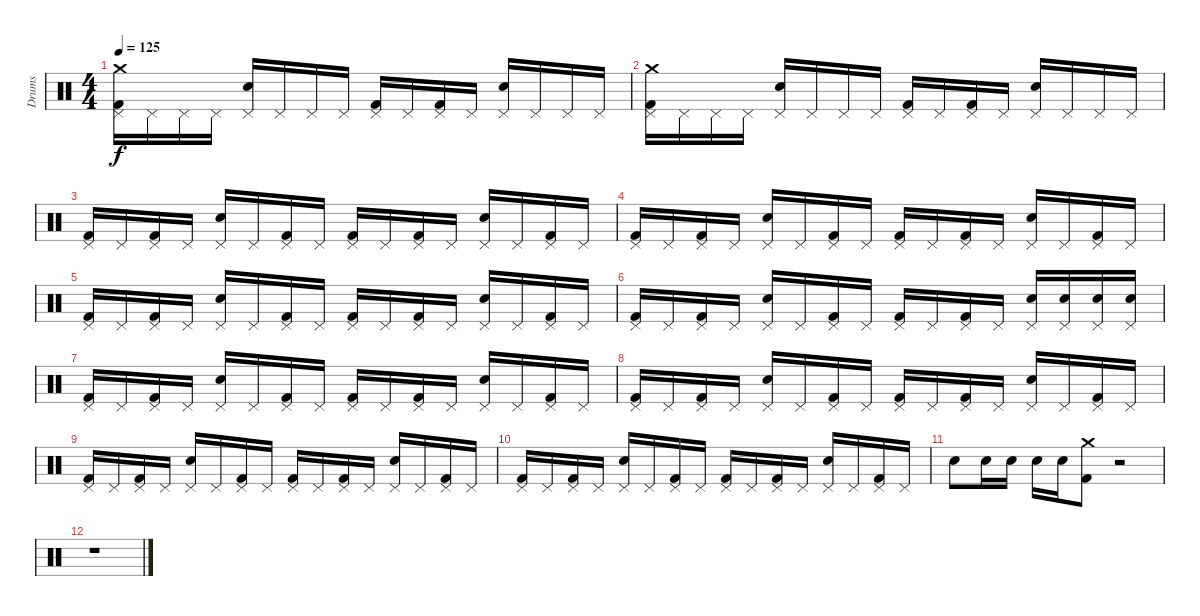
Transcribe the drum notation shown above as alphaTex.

\track ("Drums" "Drums") {instrument percussion}
\staff {score}
\articulation defaults
\ts (4 4)
\tempo 125
\clef neutral
\ks c
("Crash medium (hit)" "Kick (hit) 2" "Pedal Hi-Hat (hit)").16{dy f} "Pedal Hi-Hat (hit)".16 "Pedal Hi-Hat (hit)".16 "Pedal Hi-Hat (hit)".16 ("Snare (hit) 2" "Pedal Hi-Hat (hit)").16 "Pedal Hi-Hat (hit)".16 "Pedal Hi-Hat (hit)".16 "Pedal Hi-Hat (hit)".16 ("Kick (hit) 2" "Pedal Hi-Hat (hit)").16 "Pedal Hi-Hat (hit)".16 ("Kick (hit) 2" "Pedal Hi-Hat (hit)").16 "Pedal Hi-Hat (hit)".16 ("Snare (hit) 2" "Pedal Hi-Hat (hit)").16 "Pedal Hi-Hat (hit)".16 "Pedal Hi-Hat (hit)".16 "Pedal Hi-Hat (hit)".16 |
("Pedal Hi-Hat (hit)" "Crash medium (hit)" "Kick (hit) 2").16 "Pedal Hi-Hat (hit)".16 "Pedal Hi-Hat (hit)".16 "Pedal Hi-Hat (hit)".16 ("Pedal Hi-Hat (hit)" "Snare (hit) 2").16 "Pedal Hi-Hat (hit)".16 "Pedal Hi-Hat (hit)".16 "Pedal Hi-Hat (hit)".16 ("Pedal Hi-Hat (hit)" "Kick (hit) 2").16 "Pedal Hi-Hat (hit)".16 ("Pedal Hi-Hat (hit)" "Kick (hit) 2").16 "Pedal Hi-Hat (hit)".16 ("Pedal Hi-Hat (hit)" "Snare (hit) 2").16 "Pedal Hi-Hat (hit)".16 "Pedal Hi-Hat (hit)".16 "Pedal Hi-Hat (hit)".16 |
("Kick (hit) 2" "Pedal Hi-Hat (hit)").16 "Pedal Hi-Hat (hit)".16 ("Kick (hit) 2" "Pedal Hi-Hat (hit)").16 "Pedal Hi-Hat (hit)".16 ("Snare (hit) 2" "Pedal Hi-Hat (hit)").16 "Pedal Hi-Hat (hit)".16 ("Kick (hit) 2" "Pedal Hi-Hat (hit)").16 "Pedal Hi-Hat (hit)".16 ("Kick (hit) 2" "Pedal Hi-Hat (hit)").16 "Pedal Hi-Hat (hit)".16 ("Kick (hit) 2" "Pedal Hi-Hat (hit)").16 "Pedal Hi-Hat (hit)".16 ("Snare (hit) 2" "Pedal Hi-Hat (hit)").16 "Pedal Hi-Hat (hit)".16 ("Kick (hit) 2" "Pedal Hi-Hat (hit)").16 "Pedal Hi-Hat (hit)".16 |
("Pedal Hi-Hat (hit)" "Kick (hit) 2").16 "Pedal Hi-Hat (hit)".16 ("Pedal Hi-Hat (hit)" "Kick (hit) 2").16 "Pedal Hi-Hat (hit)".16 ("Pedal Hi-Hat (hit)" "Snare (hit) 2").16 "Pedal Hi-Hat (hit)".16 ("Pedal Hi-Hat (hit)" "Kick (hit) 2").16 "Pedal Hi-Hat (hit)".16 ("Pedal Hi-Hat (hit)" "Kick (hit) 2").16 "Pedal Hi-Hat (hit)".16 ("Pedal Hi-Hat (hit)" "Kick (hit) 2").16 "Pedal Hi-Hat (hit)".16 ("Pedal Hi-Hat (hit)" "Snare (hit) 2").16 "Pedal Hi-Hat (hit)".16 ("Pedal Hi-Hat (hit)" "Kick (hit) 2").16 "Pedal Hi-Hat (hit)".16 |
("Kick (hit) 2" "Pedal Hi-Hat (hit)").16 "Pedal Hi-Hat (hit)".16 ("Kick (hit) 2" "Pedal Hi-Hat (hit)").16 "Pedal Hi-Hat (hit)".16 ("Snare (hit) 2" "Pedal Hi-Hat (hit)").16 "Pedal Hi-Hat (hit)".16 ("Kick (hit) 2" "Pedal Hi-Hat (hit)").16 "Pedal Hi-Hat (hit)".16 ("Kick (hit) 2" "Pedal Hi-Hat (hit)").16 "Pedal Hi-Hat (hit)".16 ("Kick (hit) 2" "Pedal Hi-Hat (hit)").16 "Pedal Hi-Hat (hit)".16 ("Snare (hit) 2" "Pedal Hi-Hat (hit)").16 "Pedal Hi-Hat (hit)".16 ("Kick (hit) 2" "Pedal Hi-Hat (hit)").16 "Pedal Hi-Hat (hit)".16 |
("Pedal Hi-Hat (hit)" "Kick (hit) 2").16 "Pedal Hi-Hat (hit)".16 ("Pedal Hi-Hat (hit)" "Kick (hit) 2").16 "Pedal Hi-Hat (hit)".16 ("Pedal Hi-Hat (hit)" "Snare (hit) 2").16 "Pedal Hi-Hat (hit)".16 ("Pedal Hi-Hat (hit)" "Kick (hit) 2").16 "Pedal Hi-Hat (hit)".16 ("Kick (hit) 2" "Pedal Hi-Hat (hit)").16 "Pedal Hi-Hat (hit)".16 ("Kick (hit) 2" "Pedal Hi-Hat (hit)").16 "Pedal Hi-Hat (hit)".16 ("Pedal Hi-Hat (hit)" "Snare (hit) 2").16 ("Snare (hit) 2" "Pedal Hi-Hat (hit)").16 ("Snare (hit) 2" "Pedal Hi-Hat (hit)").16 ("Snare (hit) 2" "Pedal Hi-Hat (hit)").16 |
("Pedal Hi-Hat (hit)" "Kick (hit) 2").16 "Pedal Hi-Hat (hit)".16 ("Pedal Hi-Hat (hit)" "Kick (hit) 2").16 "Pedal Hi-Hat (hit)".16 ("Pedal Hi-Hat (hit)" "Snare (hit) 2").16 "Pedal Hi-Hat (hit)".16 ("Pedal Hi-Hat (hit)" "Kick (hit) 2").16 "Pedal Hi-Hat (hit)".16 ("Pedal Hi-Hat (hit)" "Kick (hit) 2").16 "Pedal Hi-Hat (hit)".16 ("Pedal Hi-Hat (hit)" "Kick (hit) 2").16 "Pedal Hi-Hat (hit)".16 ("Pedal Hi-Hat (hit)" "Snare (hit) 2").16 "Pedal Hi-Hat (hit)".16 ("Pedal Hi-Hat (hit)" "Kick (hit) 2").16 "Pedal Hi-Hat (hit)".16 |
("Pedal Hi-Hat (hit)" "Kick (hit) 2").16 "Pedal Hi-Hat (hit)".16 ("Pedal Hi-Hat (hit)" "Kick (hit) 2").16 "Pedal Hi-Hat (hit)".16 ("Pedal Hi-Hat (hit)" "Snare (hit) 2").16 "Pedal Hi-Hat (hit)".16 ("Pedal Hi-Hat (hit)" "Kick (hit) 2").16 "Pedal Hi-Hat (hit)".16 ("Pedal Hi-Hat (hit)" "Kick (hit) 2").16 "Pedal Hi-Hat (hit)".16 ("Pedal Hi-Hat (hit)" "Kick (hit) 2").16 "Pedal Hi-Hat (hit)".16 ("Pedal Hi-Hat (hit)" "Snare (hit) 2").16 "Pedal Hi-Hat (hit)".16 ("Pedal Hi-Hat (hit)" "Kick (hit) 2").16 "Pedal Hi-Hat (hit)".16 |
("Kick (hit) 2" "Pedal Hi-Hat (hit)").16 "Pedal Hi-Hat (hit)".16 ("Kick (hit) 2" "Pedal Hi-Hat (hit)").16 "Pedal Hi-Hat (hit)".16 ("Snare (hit) 2" "Pedal Hi-Hat (hit)").16 "Pedal Hi-Hat (hit)".16 ("Kick (hit) 2" "Pedal Hi-Hat (hit)").16 "Pedal Hi-Hat (hit)".16 ("Kick (hit) 2" "Pedal Hi-Hat (hit)").16 "Pedal Hi-Hat (hit)".16 ("Kick (hit) 2" "Pedal Hi-Hat (hit)").16 "Pedal Hi-Hat (hit)".16 ("Snare (hit) 2" "Pedal Hi-Hat (hit)").16 "Pedal Hi-Hat (hit)".16 ("Kick (hit) 2" "Pedal Hi-Hat (hit)").16 "Pedal Hi-Hat (hit)".16 |
("Kick (hit) 2" "Pedal Hi-Hat (hit)").16 "Pedal Hi-Hat (hit)".16 ("Kick (hit) 2" "Pedal Hi-Hat (hit)").16 "Pedal Hi-Hat (hit)".16 ("Snare (hit) 2" "Pedal Hi-Hat (hit)").16 "Pedal Hi-Hat (hit)".16 ("Kick (hit) 2" "Pedal Hi-Hat (hit)").16 "Pedal Hi-Hat (hit)".16 ("Kick (hit) 2" "Pedal Hi-Hat (hit)").16 "Pedal Hi-Hat (hit)".16 ("Kick (hit) 2" "Pedal Hi-Hat (hit)").16 "Pedal Hi-Hat (hit)".16 ("Snare (hit) 2" "Pedal Hi-Hat (hit)").16 "Pedal Hi-Hat (hit)".16 ("Kick (hit) 2" "Pedal Hi-Hat (hit)").16 "Pedal Hi-Hat (hit)".16 |
"Snare (hit) 2".8 "Snare (hit) 2".16 "Snare (hit) 2".16 "Snare (hit) 2".16 "Snare (hit) 2".16 ("Crash medium (hit)" "Kick (hit) 2").8 r.2 |
r.1
